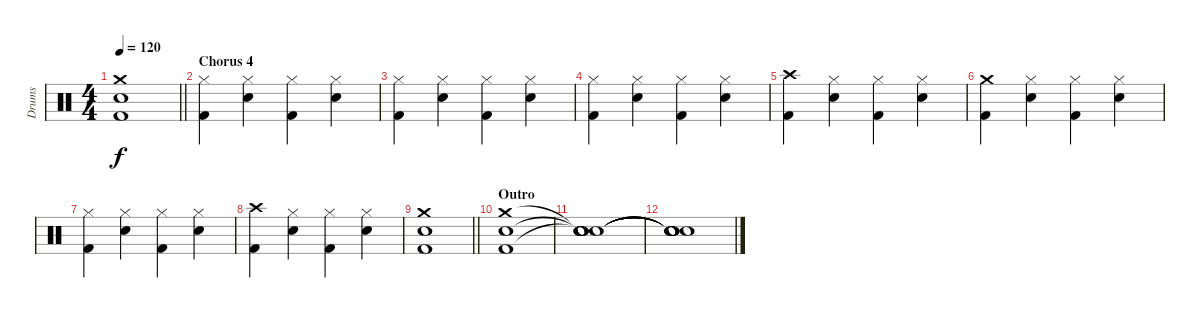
\track ("Drums" "Drums") {instrument percussion}
\staff {score}
\articulation defaults
\ts (4 4)
\tempo 120
\clef neutral
\barLineRight lightlight
\ks c
("Crash medium (hit)" "Electric Snare (hit)" "Kick (hit) 2").1{dy f} |
\section ("" "Chorus 4")
("Hi-Hat (closed)" "Kick (hit) 2").4 ("Hi-Hat (closed)" "Electric Snare (hit)").4 ("Hi-Hat (closed)" "Kick (hit) 2").4 ("Hi-Hat (closed)" "Electric Snare (hit)").4 |
("Hi-Hat (closed)" "Kick (hit) 2").4 ("Hi-Hat (closed)" "Electric Snare (hit)").4 ("Hi-Hat (closed)" "Kick (hit) 2").4 ("Hi-Hat (closed)" "Electric Snare (hit)").4 |
("Hi-Hat (closed)" "Kick (hit) 2").4 ("Hi-Hat (closed)" "Electric Snare (hit)").4 ("Hi-Hat (closed)" "Kick (hit) 2").4 ("Hi-Hat (closed)" "Electric Snare (hit)").4 |
("Crash high (hit)" "Kick (hit) 2").4 ("Hi-Hat (closed)" "Electric Snare (hit)").4 ("Hi-Hat (closed)" "Kick (hit) 2").4 ("Hi-Hat (closed)" "Electric Snare (hit)").4 |
("Crash medium (hit)" "Kick (hit) 2").4 ("Hi-Hat (closed)" "Electric Snare (hit)").4 ("Hi-Hat (closed)" "Kick (hit) 2").4 ("Hi-Hat (closed)" "Electric Snare (hit)").4 |
("Hi-Hat (closed)" "Kick (hit) 2").4 ("Hi-Hat (closed)" "Electric Snare (hit)").4 ("Hi-Hat (closed)" "Kick (hit) 2").4 ("Hi-Hat (closed)" "Electric Snare (hit)").4 |
("Crash high (hit)" "Kick (hit) 2").4 ("Hi-Hat (closed)" "Electric Snare (hit)").4 ("Hi-Hat (closed)" "Kick (hit) 2").4 ("Hi-Hat (closed)" "Electric Snare (hit)").4 |
\barLineRight lightlight
("Crash medium (hit)" "Electric Snare (hit)" "Kick (hit) 2").1 |
\section ("" "Outro")
("Crash medium (hit)" "Electric Snare (hit)" "Kick (hit) 2").1 |
("Snare (hit)"{t} "Snare (hit)"{t} "Snare (hit)"{t} "Snare (hit)" "Snare (hit)" "Snare (hit)").1 |
("Snare (hit)"{t} "Snare (hit)"{t} "Snare (hit)"{t} "Snare (hit)"{t} "Snare (hit)"{t} "Snare (hit)"{t}).1
